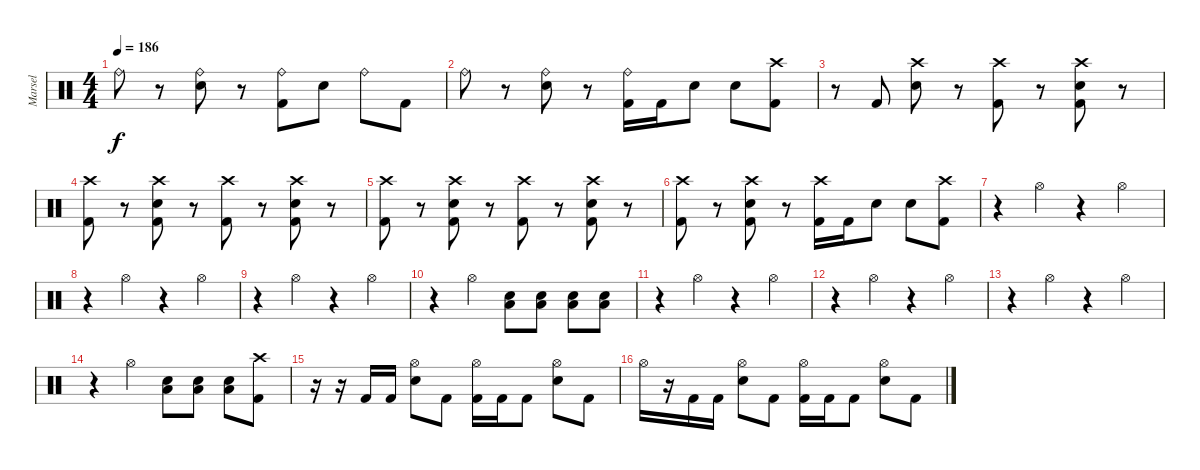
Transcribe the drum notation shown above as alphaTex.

\track ("Marsel" "Marsel") {mute instrument percussion}
\staff {score}
\articulation defaults
\ts (4 4)
\tempo 186
\clef neutral
\ks c "Ride (bell)".8{dy f}
r.8 ("Ride (bell)" "Snare (hit) 2").8 r.8 ("Ride (bell)" "Kick (hit) 2").8 "Snare (hit) 2".8 "Ride (bell)".8 "Kick (hit) 2".8 |
"Ride (bell)".8 r.8 ("Ride (bell)" "Snare (hit) 2").8 r.8 ("Ride (bell)" "Kick (hit) 2").16 "Kick (hit) 2".16 "Snare (hit) 2".8 "Snare (hit) 2".8 ("Crash high (hit)" "Kick (hit) 2").8 |
r.8 "Kick (hit) 2".8 ("Crash high (hit)" "Snare (hit) 2").8 r.8 ("Crash high (hit)" "Kick (hit) 2").8 r.8 ("Crash high (hit)" "Snare (hit) 2" "Kick (hit) 2").8 r.8 |
("Crash high (hit)" "Kick (hit) 2").8 r.8 ("Crash high (hit)" "Snare (hit) 2" "Kick (hit) 2").8 r.8 ("Crash high (hit)" "Kick (hit) 2").8 r.8 ("Crash high (hit)" "Snare (hit) 2" "Kick (hit) 2").8 r.8 |
("Crash high (hit)" "Kick (hit) 2").8 r.8 ("Crash high (hit)" "Snare (hit) 2" "Kick (hit) 2").8 r.8 ("Crash high (hit)" "Kick (hit) 2").8 r.8 ("Crash high (hit)" "Snare (hit) 2" "Kick (hit) 2").8 r.8 |
("Crash high (hit)" "Kick (hit) 2").8 r.8 ("Crash high (hit)" "Snare (hit) 2" "Kick (hit) 2").8 r.8 ("Crash high (hit)" "Kick (hit) 2").16 "Kick (hit) 2".16 "Snare (hit) 2".8 "Snare (hit) 2".8 ("Crash high (hit)" "Kick (hit) 2").8 |
r.4 "Hi-Hat (open)".4 r.4 "Hi-Hat (open)".4 |
r.4 "Hi-Hat (open)".4 r.4 "Hi-Hat (open)".4 |
r.4 "Hi-Hat (open)".4 r.4 "Hi-Hat (open)".4 |
r.4 "Hi-Hat (open)".4 ("Snare (hit) 2" "Low Floor Tom (hit)").8 ("Snare (hit) 2" "Low Floor Tom (hit)").8 ("Snare (hit) 2" "Low Floor Tom (hit)").8 ("Snare (hit) 2" "Low Floor Tom (hit)").8 |
r.4 "Hi-Hat (open)".4 r.4 "Hi-Hat (open)".4 |
r.4 "Hi-Hat (open)".4 r.4 "Hi-Hat (open)".4 |
r.4 "Hi-Hat (open)".4 r.4 "Hi-Hat (open)".4 |
r.4 "Hi-Hat (open)".4 ("Snare (hit) 2" "Low Floor Tom (hit)").8 ("Snare (hit) 2" "Low Floor Tom (hit)").8 ("Snare (hit) 2" "Low Floor Tom (hit)").8 ("Crash high (hit)" "Kick (hit) 2").8 |
r.16 r.16 "Kick (hit) 2".16 "Kick (hit) 2".16 ("Hi-Hat (open)" "Snare (hit) 2").8 "Kick (hit) 2".8 ("Hi-Hat (open)" "Kick (hit) 2").16 "Kick (hit) 2".16 "Kick (hit) 2".8 ("Hi-Hat (open)" "Snare (hit) 2").8 "Kick (hit) 2".8 |
"Hi-Hat (open)".16 r.16 "Kick (hit) 2".16 "Kick (hit) 2".16 ("Hi-Hat (open)" "Snare (hit) 2").8 "Kick (hit) 2".8 ("Hi-Hat (open)" "Kick (hit) 2").16 "Kick (hit) 2".16 "Kick (hit) 2".8 ("Hi-Hat (open)" "Snare (hit) 2").8 "Kick (hit) 2".8
